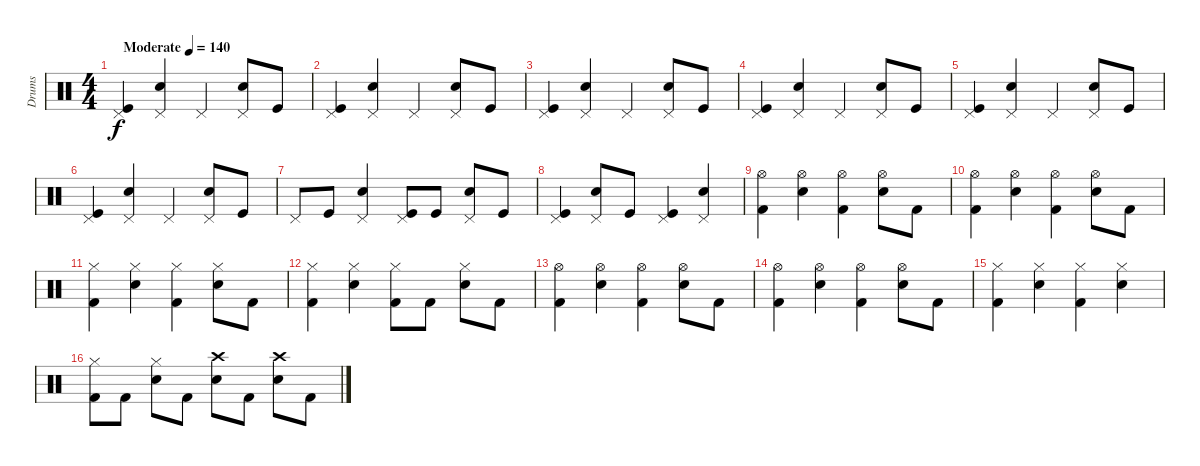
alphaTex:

\track ("Drums" "Drums") {instrument percussion}
\staff {score}
\articulation defaults
\ts (4 4)
\tempo (140 "Moderate")
\clef neutral
\ks c
("Pedal Hi-Hat (hit)" "Kick (hit)").4{dy f} ("Pedal Hi-Hat (hit)" "Snare (hit) 2").4 "Pedal Hi-Hat (hit)".4 ("Pedal Hi-Hat (hit)" "Snare (hit) 2").8 "Kick (hit)".8 |
("Pedal Hi-Hat (hit)" "Kick (hit)").4 ("Pedal Hi-Hat (hit)" "Snare (hit) 2").4 "Pedal Hi-Hat (hit)".4 ("Pedal Hi-Hat (hit)" "Snare (hit) 2").8 "Kick (hit)".8 |
("Pedal Hi-Hat (hit)" "Kick (hit)").4 ("Pedal Hi-Hat (hit)" "Snare (hit) 2").4 "Pedal Hi-Hat (hit)".4 ("Pedal Hi-Hat (hit)" "Snare (hit) 2").8 "Kick (hit)".8 |
("Pedal Hi-Hat (hit)" "Kick (hit)").4 ("Pedal Hi-Hat (hit)" "Snare (hit) 2").4 "Pedal Hi-Hat (hit)".4 ("Pedal Hi-Hat (hit)" "Snare (hit) 2").8 "Kick (hit)".8 |
("Pedal Hi-Hat (hit)" "Kick (hit)").4 ("Pedal Hi-Hat (hit)" "Snare (hit) 2").4 "Pedal Hi-Hat (hit)".4 ("Pedal Hi-Hat (hit)" "Snare (hit) 2").8 "Kick (hit)".8 |
("Pedal Hi-Hat (hit)" "Kick (hit)").4 ("Pedal Hi-Hat (hit)" "Snare (hit) 2").4 "Pedal Hi-Hat (hit)".4 ("Pedal Hi-Hat (hit)" "Snare (hit) 2").8 "Kick (hit)".8 |
"Pedal Hi-Hat (hit)".8 "Kick (hit)".8 ("Pedal Hi-Hat (hit)" "Snare (hit) 2").4 ("Pedal Hi-Hat (hit)" "Kick (hit)").8 "Kick (hit)".8 ("Pedal Hi-Hat (hit)" "Snare (hit) 2").8 "Kick (hit)".8 |
("Pedal Hi-Hat (hit)" "Kick (hit)").4 ("Pedal Hi-Hat (hit)" "Snare (hit) 2").8 "Kick (hit)".8 ("Pedal Hi-Hat (hit)" "Kick (hit)").4 ("Pedal Hi-Hat (hit)" "Snare (hit) 2").4 |
("Hi-Hat (open)" "Kick (hit) 2").4 ("Hi-Hat (open)" "Electric Snare (hit)").4 ("Hi-Hat (open)" "Kick (hit) 2").4 ("Hi-Hat (open)" "Electric Snare (hit)").8 "Kick (hit) 2".8 |
("Hi-Hat (open)" "Kick (hit) 2").4 ("Hi-Hat (open)" "Electric Snare (hit)").4 ("Hi-Hat (open)" "Kick (hit) 2").4 ("Hi-Hat (open)" "Electric Snare (hit)").8 "Kick (hit) 2".8 |
("Hi-Hat (closed)" "Kick (hit) 2").4 ("Hi-Hat (closed)" "Electric Snare (hit)").4 ("Hi-Hat (closed)" "Kick (hit) 2").4 ("Hi-Hat (closed)" "Electric Snare (hit)").8 "Kick (hit) 2".8 |
("Hi-Hat (closed)" "Kick (hit) 2").4 ("Hi-Hat (closed)" "Electric Snare (hit)").4 ("Hi-Hat (closed)" "Kick (hit) 2").8 "Kick (hit) 2".8 ("Hi-Hat (closed)" "Electric Snare (hit)").8 "Kick (hit) 2".8 |
("Hi-Hat (open)" "Kick (hit) 2").4 ("Hi-Hat (open)" "Electric Snare (hit)").4 ("Hi-Hat (open)" "Kick (hit) 2").4 ("Hi-Hat (open)" "Electric Snare (hit)").8 "Kick (hit) 2".8 |
("Hi-Hat (open)" "Kick (hit) 2").4 ("Hi-Hat (open)" "Electric Snare (hit)").4 ("Hi-Hat (open)" "Kick (hit) 2").4 ("Hi-Hat (open)" "Electric Snare (hit)").8 "Kick (hit) 2".8 |
("Hi-Hat (closed)" "Kick (hit) 2").4 ("Hi-Hat (closed)" "Electric Snare (hit)").4 ("Hi-Hat (closed)" "Kick (hit) 2").4 ("Hi-Hat (closed)" "Electric Snare (hit)").4 |
("Hi-Hat (closed)" "Kick (hit) 2").8 "Kick (hit) 2".8 ("Hi-Hat (closed)" "Electric Snare (hit)").8 "Kick (hit) 2".8 ("Crash high (hit)" "Electric Snare (hit)").8 "Kick (hit) 2".8 ("Crash high (hit)" "Electric Snare (hit)").8 "Kick (hit) 2".8
